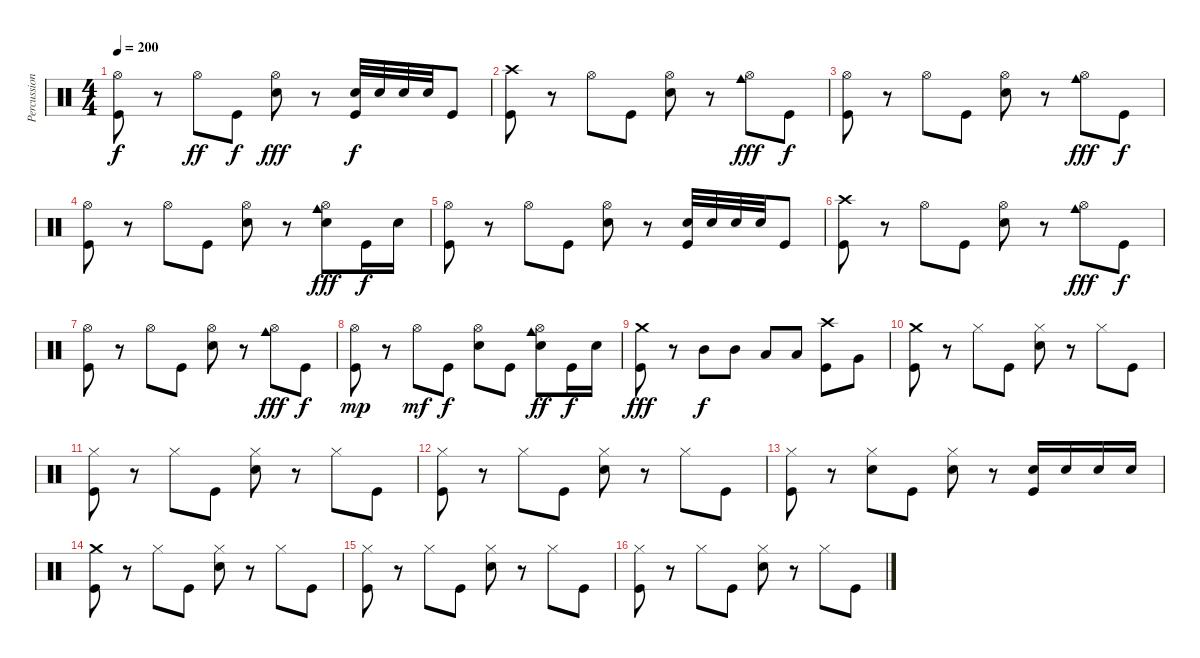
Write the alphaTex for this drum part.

\track ("Percussion" "Percussion") {instrument percussion}
\staff {score}
\articulation defaults
\ts (4 4)
\tempo 200
\clef neutral
\ks c
("Hi-Hat (open)" "Kick (hit)").8{dy f} r.8 "Hi-Hat (open)".8{dy ff} "Kick (hit)".8{dy f} ("Hi-Hat (open)" "Electric Snare (hit)").8{dy fff} r.8 ("Electric Snare (hit)" "Kick (hit)").32{dy f} "Electric Snare (hit)".32 "Electric Snare (hit)".32 "Electric Snare (hit)".32 "Kick (hit)".8 |
("Crash high (hit)" "Kick (hit)").8 r.8 "Hi-Hat (open)".8 "Kick (hit)".8 ("Hi-Hat (open)" "Electric Snare (hit)").8 r.8 ("Hi-Hat (open)" "Cowbell medium (hit)").8{dy fff} "Kick (hit)".8{dy f} |
("Hi-Hat (open)" "Kick (hit)").8 r.8 "Hi-Hat (open)".8 "Kick (hit)".8 ("Hi-Hat (open)" "Electric Snare (hit)").8 r.8 ("Hi-Hat (open)" "Cowbell medium (hit)").8{dy fff} "Kick (hit)".8{dy f} |
("Hi-Hat (open)" "Kick (hit)").8 r.8 "Hi-Hat (open)".8 "Kick (hit)".8 ("Hi-Hat (open)" "Electric Snare (hit)").8 r.8 ("Hi-Hat (open)" "Cowbell medium (hit)" "Electric Snare (hit)").8{dy fff} "Kick (hit)".16{dy f} "Electric Snare (hit)".16 |
("Hi-Hat (open)" "Kick (hit)").8 r.8 "Hi-Hat (open)".8 "Kick (hit)".8 ("Hi-Hat (open)" "Electric Snare (hit)").8 r.8 ("Electric Snare (hit)" "Kick (hit)").32 "Electric Snare (hit)".32 "Electric Snare (hit)".32 "Electric Snare (hit)".32 "Kick (hit)".8 |
("Crash high (hit)" "Kick (hit)").8 r.8 "Hi-Hat (open)".8 "Kick (hit)".8 ("Hi-Hat (open)" "Electric Snare (hit)").8 r.8 ("Hi-Hat (open)" "Cowbell medium (hit)").8{dy fff} "Kick (hit)".8{dy f} |
("Hi-Hat (open)" "Kick (hit)").8 r.8 "Hi-Hat (open)".8 "Kick (hit)".8 ("Hi-Hat (open)" "Electric Snare (hit)").8 r.8 ("Hi-Hat (open)" "Cowbell medium (hit)").8{dy fff} "Kick (hit)".8{dy f} |
("Hi-Hat (open)" "Kick (hit)").8{dy mp} r.8 "Hi-Hat (open)".8{dy mf} "Kick (hit)".8{dy f} ("Hi-Hat (open)" "Electric Snare (hit)").8 "Kick (hit)".8 ("Hi-Hat (open)" "Cowbell medium (hit)" "Electric Snare (hit)").8{dy ff} "Kick (hit)".16{dy f} "Electric Snare (hit)".16 |
("Crash medium (hit)" "Kick (hit)").8{dy fff} r.8 "Mid Tom (hit)".8{dy f} "Mid Tom (hit)".8 "Low Tom (hit)".8 "Low Tom (hit)".8 ("Crash high (hit)" "Kick (hit)").8 "Very Low Tom (hit)".8 |
("Crash medium (hit)" "Kick (hit)").8 r.8 "Hi-Hat (closed)".8 "Kick (hit)".8 ("Hi-Hat (closed)" "Electric Snare (hit)").8 r.8 "Hi-Hat (closed)".8 "Kick (hit)".8 |
("Hi-Hat (closed)" "Kick (hit)").8 r.8 "Hi-Hat (closed)".8 "Kick (hit)".8 ("Hi-Hat (closed)" "Electric Snare (hit)").8 r.8 "Hi-Hat (closed)".8 "Kick (hit)".8 |
("Hi-Hat (closed)" "Kick (hit)").8 r.8 "Hi-Hat (closed)".8 "Kick (hit)".8 ("Hi-Hat (closed)" "Electric Snare (hit)").8 r.8 "Hi-Hat (closed)".8 "Kick (hit)".8 |
("Hi-Hat (closed)" "Kick (hit)").8 r.8 ("Hi-Hat (closed)" "Electric Snare (hit)").8 "Kick (hit)".8 ("Hi-Hat (closed)" "Electric Snare (hit)").8 r.8 ("Electric Snare (hit)" "Kick (hit)").16 "Electric Snare (hit)".16 "Electric Snare (hit)".16 "Electric Snare (hit)".16 |
("Crash medium (hit)" "Kick (hit)").8 r.8 "Hi-Hat (closed)".8 "Kick (hit)".8 ("Hi-Hat (closed)" "Electric Snare (hit)").8 r.8 "Hi-Hat (closed)".8 "Kick (hit)".8 |
("Hi-Hat (closed)" "Kick (hit)").8 r.8 "Hi-Hat (closed)".8 "Kick (hit)".8 ("Hi-Hat (closed)" "Electric Snare (hit)").8 r.8 "Hi-Hat (closed)".8 "Kick (hit)".8 |
("Hi-Hat (closed)" "Kick (hit)").8 r.8 "Hi-Hat (closed)".8 "Kick (hit)".8 ("Hi-Hat (closed)" "Electric Snare (hit)").8 r.8 "Hi-Hat (closed)".8 "Kick (hit)".8
